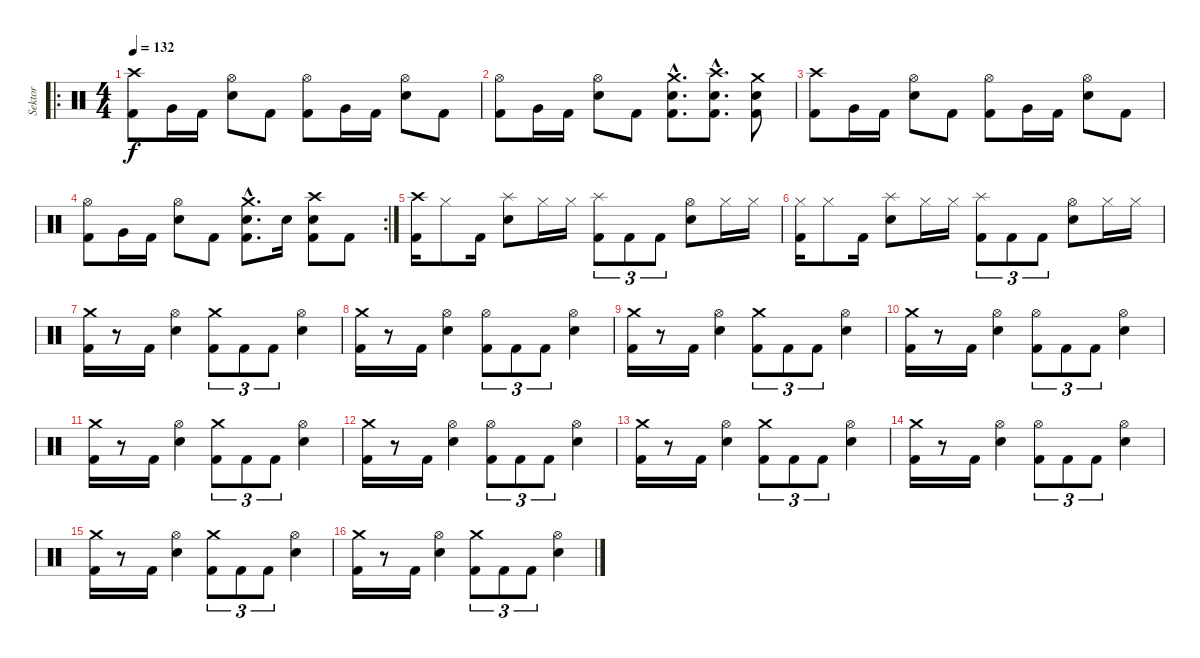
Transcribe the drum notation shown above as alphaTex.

\track ("Sektor" "Sektor") {instrument percussion}
\staff {score}
\articulation defaults
\ro
\ts (4 4)
\tempo 132
\clef neutral
\ks c
("Crash high (hit)" "Kick (hit) 2").8{dy f} "Very Low Tom (hit)".16 "Kick (hit) 2".16 ("Hi-Hat (open)" "Snare (hit) 2").8 "Kick (hit) 2".8 ("Hi-Hat (open)" "Kick (hit) 2").8 "Very Low Tom (hit)".16 "Kick (hit) 2".16 ("Hi-Hat (open)" "Snare (hit) 2").8 "Kick (hit) 2".8 |
("Hi-Hat (open)" "Kick (hit) 2").8 "Very Low Tom (hit)".16 "Kick (hit) 2".16 ("Hi-Hat (open)" "Snare (hit) 2").8 "Kick (hit) 2".8 ("Crash medium (hit)"{hac} "Snare (hit) 2"{hac} "Kick (hit) 2"{hac}).8{d} ("Crash high (hit)"{hac} "Snare (hit) 2"{hac} "Kick (hit) 2"{hac}).8{d} ("Crash medium (hit)" "Snare (hit) 2" "Kick (hit) 2").8 |
("Crash high (hit)" "Kick (hit) 2").8 "Very Low Tom (hit)".16 "Kick (hit) 2".16 ("Hi-Hat (open)" "Snare (hit) 2").8 "Kick (hit) 2".8 ("Hi-Hat (open)" "Kick (hit) 2").8 "Very Low Tom (hit)".16 "Kick (hit) 2".16 ("Hi-Hat (open)" "Snare (hit) 2").8 "Kick (hit) 2".8 |
\rc 2
("Hi-Hat (open)" "Kick (hit) 2").8 "Very Low Tom (hit)".16 "Kick (hit) 2".16 ("Hi-Hat (open)" "Snare (hit) 2").8 "Kick (hit) 2".8 ("Crash medium (hit)"{hac} "Snare (hit) 2"{hac} "Kick (hit) 2"{hac}).8{d} "Snare (hit) 2".16 ("Crash high (hit)" "Snare (hit) 2" "Kick (hit) 2").8 "Kick (hit) 2".8 |
("Crash high (hit)" "Kick (hit) 2").16 "Hi-Hat (closed)".8 "Kick (hit) 2".16 ("Splash (hit)" "Snare (hit) 2").8 "Hi-Hat (closed)".16 "Hi-Hat (closed)".16 ("Splash (hit)" "Kick (hit) 2").8{tu (3 2)} "Kick (hit) 2".8{tu (3 2)} "Kick (hit) 2".8{tu (3 2)} ("Hi-Hat (open)" "Snare (hit) 2").8 "Hi-Hat (closed)".16 "Hi-Hat (closed)".16 |
("Hi-Hat (closed)" "Kick (hit) 2").16 "Hi-Hat (closed)".8 "Kick (hit) 2".16 ("Splash (hit)" "Snare (hit) 2").8 "Hi-Hat (closed)".16 "Hi-Hat (closed)".16 ("Splash (hit)" "Kick (hit) 2").8{tu (3 2)} "Kick (hit) 2".8{tu (3 2)} "Kick (hit) 2".8{tu (3 2)} ("Hi-Hat (open)" "Snare (hit) 2").8 "Hi-Hat (closed)".16 "Hi-Hat (closed)".16 |
("Crash medium (hit)" "Kick (hit) 2").16 r.8 "Kick (hit) 2".16 ("Hi-Hat (open)" "Snare (hit) 2").4 ("Crash medium (hit)" "Kick (hit) 2").8{tu (3 2)} "Kick (hit) 2".8{tu (3 2)} "Kick (hit) 2".8{tu (3 2)} ("Hi-Hat (open)" "Snare (hit) 2").4 |
("Crash medium (hit)" "Kick (hit) 2").16 r.8 "Kick (hit) 2".16 ("Hi-Hat (open)" "Snare (hit) 2").4 ("Hi-Hat (open)" "Kick (hit) 2").8{tu (3 2)} "Kick (hit) 2".8{tu (3 2)} "Kick (hit) 2".8{tu (3 2)} ("Hi-Hat (open)" "Snare (hit) 2").4 |
("Crash medium (hit)" "Kick (hit) 2").16 r.8 "Kick (hit) 2".16 ("Hi-Hat (open)" "Snare (hit) 2").4 ("Crash medium (hit)" "Kick (hit) 2").8{tu (3 2)} "Kick (hit) 2".8{tu (3 2)} "Kick (hit) 2".8{tu (3 2)} ("Hi-Hat (open)" "Snare (hit) 2").4 |
("Crash medium (hit)" "Kick (hit) 2").16 r.8 "Kick (hit) 2".16 ("Hi-Hat (open)" "Snare (hit) 2").4 ("Hi-Hat (open)" "Kick (hit) 2").8{tu (3 2)} "Kick (hit) 2".8{tu (3 2)} "Kick (hit) 2".8{tu (3 2)} ("Hi-Hat (open)" "Snare (hit) 2").4 |
("Crash medium (hit)" "Kick (hit) 2").16 r.8 "Kick (hit) 2".16 ("Hi-Hat (open)" "Snare (hit) 2").4 ("Crash medium (hit)" "Kick (hit) 2").8{tu (3 2)} "Kick (hit) 2".8{tu (3 2)} "Kick (hit) 2".8{tu (3 2)} ("Hi-Hat (open)" "Snare (hit) 2").4 |
("Crash medium (hit)" "Kick (hit) 2").16 r.8 "Kick (hit) 2".16 ("Hi-Hat (open)" "Snare (hit) 2").4 ("Hi-Hat (open)" "Kick (hit) 2").8{tu (3 2)} "Kick (hit) 2".8{tu (3 2)} "Kick (hit) 2".8{tu (3 2)} ("Hi-Hat (open)" "Snare (hit) 2").4 |
("Crash medium (hit)" "Kick (hit) 2").16 r.8 "Kick (hit) 2".16 ("Hi-Hat (open)" "Snare (hit) 2").4 ("Crash medium (hit)" "Kick (hit) 2").8{tu (3 2)} "Kick (hit) 2".8{tu (3 2)} "Kick (hit) 2".8{tu (3 2)} ("Hi-Hat (open)" "Snare (hit) 2").4 |
("Crash medium (hit)" "Kick (hit) 2").16 r.8 "Kick (hit) 2".16 ("Hi-Hat (open)" "Snare (hit) 2").4 ("Hi-Hat (open)" "Kick (hit) 2").8{tu (3 2)} "Kick (hit) 2".8{tu (3 2)} "Kick (hit) 2".8{tu (3 2)} ("Hi-Hat (open)" "Snare (hit) 2").4 |
("Crash medium (hit)" "Kick (hit) 2").16 r.8 "Kick (hit) 2".16 ("Hi-Hat (open)" "Snare (hit) 2").4 ("Crash medium (hit)" "Kick (hit) 2").8{tu (3 2)} "Kick (hit) 2".8{tu (3 2)} "Kick (hit) 2".8{tu (3 2)} ("Hi-Hat (open)" "Snare (hit) 2").4 |
("Crash medium (hit)" "Kick (hit) 2").16 r.8 "Kick (hit) 2".16 ("Hi-Hat (open)" "Snare (hit) 2").4 ("Crash medium (hit)" "Kick (hit) 2").8{tu (3 2)} "Kick (hit) 2".8{tu (3 2)} "Kick (hit) 2".8{tu (3 2)} ("Hi-Hat (open)" "Snare (hit) 2").4
